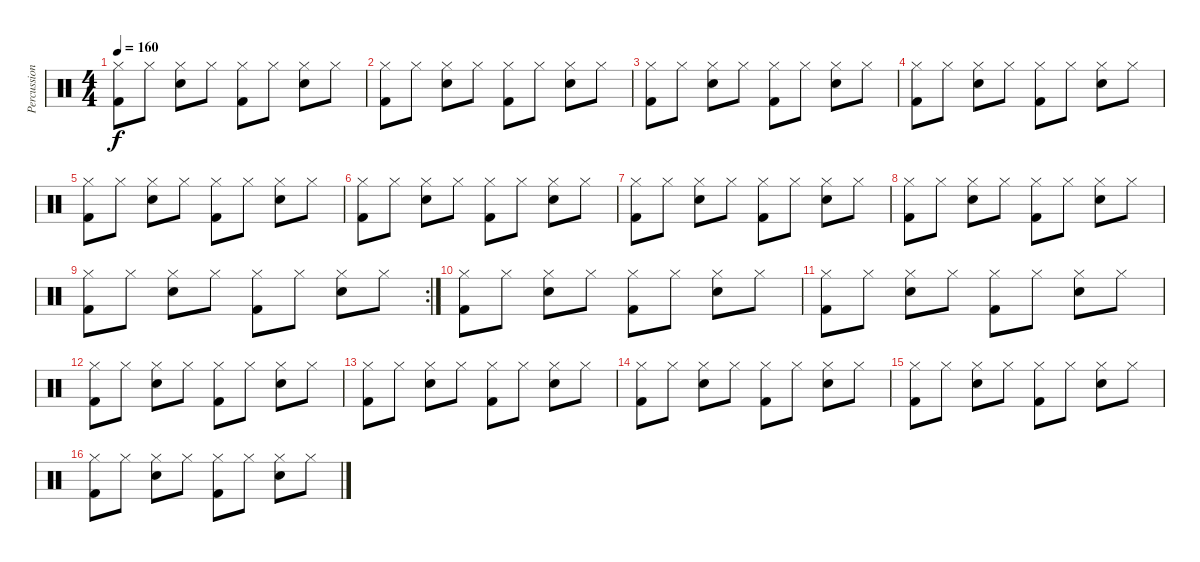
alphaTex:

\track ("Percussion" "Percussion") {instrument percussion}
\staff {score}
\articulation defaults
\ts (4 4)
\tempo 160
\clef neutral
\ks c
("Hi-Hat (closed)" "Kick (hit) 2").8{dy f} "Hi-Hat (closed)".8 ("Hi-Hat (closed)" "Electric Snare (hit)").8 "Hi-Hat (closed)".8 ("Hi-Hat (closed)" "Kick (hit) 2").8 "Hi-Hat (closed)".8 ("Hi-Hat (closed)" "Electric Snare (hit)").8 "Hi-Hat (closed)".8 |
("Hi-Hat (closed)" "Kick (hit) 2").8 "Hi-Hat (closed)".8 ("Hi-Hat (closed)" "Electric Snare (hit)").8 "Hi-Hat (closed)".8 ("Hi-Hat (closed)" "Kick (hit) 2").8 "Hi-Hat (closed)".8 ("Hi-Hat (closed)" "Electric Snare (hit)").8 "Hi-Hat (closed)".8 |
("Hi-Hat (closed)" "Kick (hit) 2").8 "Hi-Hat (closed)".8 ("Hi-Hat (closed)" "Electric Snare (hit)").8 "Hi-Hat (closed)".8 ("Hi-Hat (closed)" "Kick (hit) 2").8 "Hi-Hat (closed)".8 ("Hi-Hat (closed)" "Electric Snare (hit)").8 "Hi-Hat (closed)".8 |
("Hi-Hat (closed)" "Kick (hit) 2").8 "Hi-Hat (closed)".8 ("Hi-Hat (closed)" "Electric Snare (hit)").8 "Hi-Hat (closed)".8 ("Hi-Hat (closed)" "Kick (hit) 2").8 "Hi-Hat (closed)".8 ("Hi-Hat (closed)" "Electric Snare (hit)").8 "Hi-Hat (closed)".8 |
("Hi-Hat (closed)" "Kick (hit) 2").8 "Hi-Hat (closed)".8 ("Hi-Hat (closed)" "Electric Snare (hit)").8 "Hi-Hat (closed)".8 ("Hi-Hat (closed)" "Kick (hit) 2").8 "Hi-Hat (closed)".8 ("Hi-Hat (closed)" "Electric Snare (hit)").8 "Hi-Hat (closed)".8 |
("Hi-Hat (closed)" "Kick (hit) 2").8 "Hi-Hat (closed)".8 ("Hi-Hat (closed)" "Electric Snare (hit)").8 "Hi-Hat (closed)".8 ("Hi-Hat (closed)" "Kick (hit) 2").8 "Hi-Hat (closed)".8 ("Hi-Hat (closed)" "Electric Snare (hit)").8 "Hi-Hat (closed)".8 |
("Hi-Hat (closed)" "Kick (hit) 2").8 "Hi-Hat (closed)".8 ("Hi-Hat (closed)" "Electric Snare (hit)").8 "Hi-Hat (closed)".8 ("Hi-Hat (closed)" "Kick (hit) 2").8 "Hi-Hat (closed)".8 ("Hi-Hat (closed)" "Electric Snare (hit)").8 "Hi-Hat (closed)".8 |
("Hi-Hat (closed)" "Kick (hit) 2").8 "Hi-Hat (closed)".8 ("Hi-Hat (closed)" "Electric Snare (hit)").8 "Hi-Hat (closed)".8 ("Hi-Hat (closed)" "Kick (hit) 2").8 "Hi-Hat (closed)".8 ("Hi-Hat (closed)" "Electric Snare (hit)").8 "Hi-Hat (closed)".8 |
\rc 2
("Hi-Hat (closed)" "Kick (hit) 2").8 "Hi-Hat (closed)".8 ("Hi-Hat (closed)" "Electric Snare (hit)").8 "Hi-Hat (closed)".8 ("Hi-Hat (closed)" "Kick (hit) 2").8 "Hi-Hat (closed)".8 ("Hi-Hat (closed)" "Electric Snare (hit)").8 "Hi-Hat (closed)".8 |
("Hi-Hat (closed)" "Kick (hit) 2").8 "Hi-Hat (closed)".8 ("Hi-Hat (closed)" "Electric Snare (hit)").8 "Hi-Hat (closed)".8 ("Hi-Hat (closed)" "Kick (hit) 2").8 "Hi-Hat (closed)".8 ("Hi-Hat (closed)" "Electric Snare (hit)").8 "Hi-Hat (closed)".8 |
("Hi-Hat (closed)" "Kick (hit) 2").8 "Hi-Hat (closed)".8 ("Hi-Hat (closed)" "Electric Snare (hit)").8 "Hi-Hat (closed)".8 ("Hi-Hat (closed)" "Kick (hit) 2").8 "Hi-Hat (closed)".8 ("Hi-Hat (closed)" "Electric Snare (hit)").8 "Hi-Hat (closed)".8 |
("Hi-Hat (closed)" "Kick (hit) 2").8 "Hi-Hat (closed)".8 ("Hi-Hat (closed)" "Electric Snare (hit)").8 "Hi-Hat (closed)".8 ("Hi-Hat (closed)" "Kick (hit) 2").8 "Hi-Hat (closed)".8 ("Hi-Hat (closed)" "Electric Snare (hit)").8 "Hi-Hat (closed)".8 |
("Hi-Hat (closed)" "Kick (hit) 2").8 "Hi-Hat (closed)".8 ("Hi-Hat (closed)" "Electric Snare (hit)").8 "Hi-Hat (closed)".8 ("Hi-Hat (closed)" "Kick (hit) 2").8 "Hi-Hat (closed)".8 ("Hi-Hat (closed)" "Electric Snare (hit)").8 "Hi-Hat (closed)".8 |
("Hi-Hat (closed)" "Kick (hit) 2").8 "Hi-Hat (closed)".8 ("Hi-Hat (closed)" "Electric Snare (hit)").8 "Hi-Hat (closed)".8 ("Hi-Hat (closed)" "Kick (hit) 2").8 "Hi-Hat (closed)".8 ("Hi-Hat (closed)" "Electric Snare (hit)").8 "Hi-Hat (closed)".8 |
("Hi-Hat (closed)" "Kick (hit) 2").8 "Hi-Hat (closed)".8 ("Hi-Hat (closed)" "Electric Snare (hit)").8 "Hi-Hat (closed)".8 ("Hi-Hat (closed)" "Kick (hit) 2").8 "Hi-Hat (closed)".8 ("Hi-Hat (closed)" "Electric Snare (hit)").8 "Hi-Hat (closed)".8 |
("Hi-Hat (closed)" "Kick (hit) 2").8 "Hi-Hat (closed)".8 ("Hi-Hat (closed)" "Electric Snare (hit)").8 "Hi-Hat (closed)".8 ("Hi-Hat (closed)" "Kick (hit) 2").8 "Hi-Hat (closed)".8 ("Hi-Hat (closed)" "Electric Snare (hit)").8 "Hi-Hat (closed)".8
